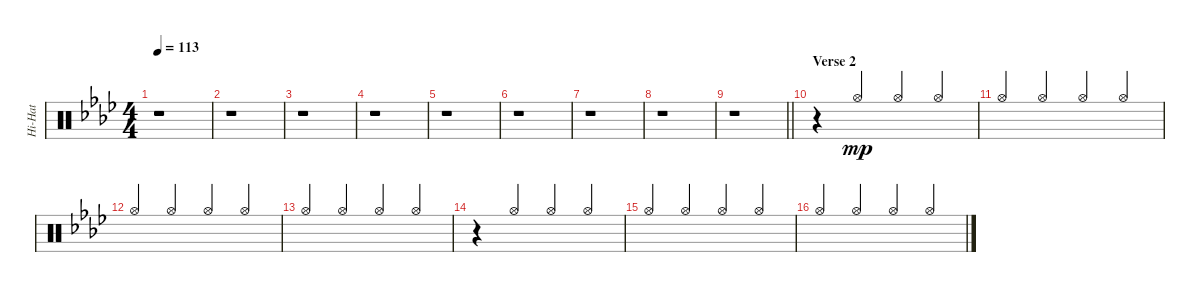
\track ("Hi-Hat" "Hi-Hat") {instrument percussion}
\staff {score}
\articulation defaults
\ts (4 4)
\tempo 113
\clef neutral
\ks fminor
r.1{dy mp} |
r.1 |
r.1 |
r.1 |
r.1 |
r.1 |
r.1 |
r.1 |
\barLineRight lightlight
r.1 |
\section ("" "Verse 2")
r.4 "Hi-Hat (open)".4{beam Up} "Hi-Hat (open)".4{beam Up} "Hi-Hat (open)".4{beam Up} |
"Hi-Hat (open)".4{beam Up} "Hi-Hat (open)".4{beam Up} "Hi-Hat (open)".4{beam Up} "Hi-Hat (open)".4{beam Up} |
"Hi-Hat (open)".4{beam Up} "Hi-Hat (open)".4{beam Up} "Hi-Hat (open)".4{beam Up} "Hi-Hat (open)".4{beam Up} |
"Hi-Hat (open)".4{beam Up} "Hi-Hat (open)".4{beam Up} "Hi-Hat (open)".4{beam Up} "Hi-Hat (open)".4{beam Up} |
r.4 "Hi-Hat (open)".4{beam Up} "Hi-Hat (open)".4{beam Up} "Hi-Hat (open)".4{beam Up} |
"Hi-Hat (open)".4{beam Up} "Hi-Hat (open)".4{beam Up} "Hi-Hat (open)".4{beam Up} "Hi-Hat (open)".4{beam Up} |
"Hi-Hat (open)".4{beam Up} "Hi-Hat (open)".4{beam Up} "Hi-Hat (open)".4{beam Up} "Hi-Hat (open)".4{beam Up}
